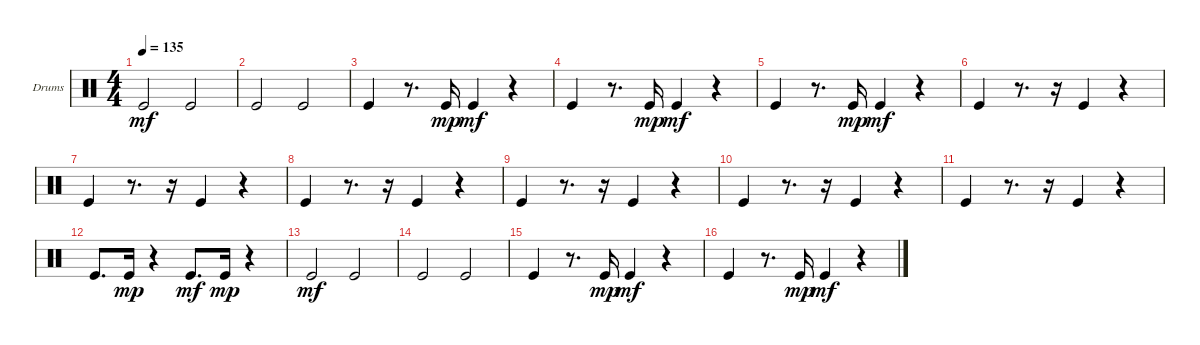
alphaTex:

\bracketExtendMode groupsimilarinstruments
\firstSystemTrackNameOrientation horizontal
\otherSystemsTrackNameOrientation horizontal
\track ("Kick" "Drums") {instrument percussion}
\staff {score}
\articulation defaults
\ts (4 4)
\tempo 135
\clef neutral
\ks c "Kick (hit)".2{dy mf} "Kick (hit)".2
|
"Kick (hit)".2 "Kick (hit)".2 |
"Kick (hit)".4 r.8{d} "Kick (hit)".16{dy mp} "Kick (hit)".4{dy mf} r.4 |
"Kick (hit)".4 r.8{d} "Kick (hit)".16{dy mp} "Kick (hit)".4{dy mf} r.4 |
"Kick (hit)".4 r.8{d} "Kick (hit)".16{dy mp} "Kick (hit)".4{dy mf} r.4 |
"Kick (hit)".4 r.8{d} r.16 "Kick (hit)".4 r.4 |
"Kick (hit)".4 r.8{d} r.16 "Kick (hit)".4 r.4 |
"Kick (hit)".4 r.8{d} r.16 "Kick (hit)".4 r.4 |
"Kick (hit)".4 r.8{d} r.16 "Kick (hit)".4 r.4 |
"Kick (hit)".4 r.8{d} r.16 "Kick (hit)".4 r.4 |
"Kick (hit)".4 r.8{d} r.16 "Kick (hit)".4 r.4 |
"Kick (hit)".8{d} "Kick (hit)".16{dy mp} r.4 "Kick (hit)".8{d dy mf} "Kick (hit)".16{dy mp} r.4 |
"Kick (hit)".2{dy mf} "Kick (hit)".2 |
"Kick (hit)".2 "Kick (hit)".2 |
"Kick (hit)".4 r.8{d} "Kick (hit)".16{dy mp} "Kick (hit)".4{dy mf} r.4 |
"Kick (hit)".4 r.8{d} "Kick (hit)".16{dy mp} "Kick (hit)".4{dy mf} r.4
